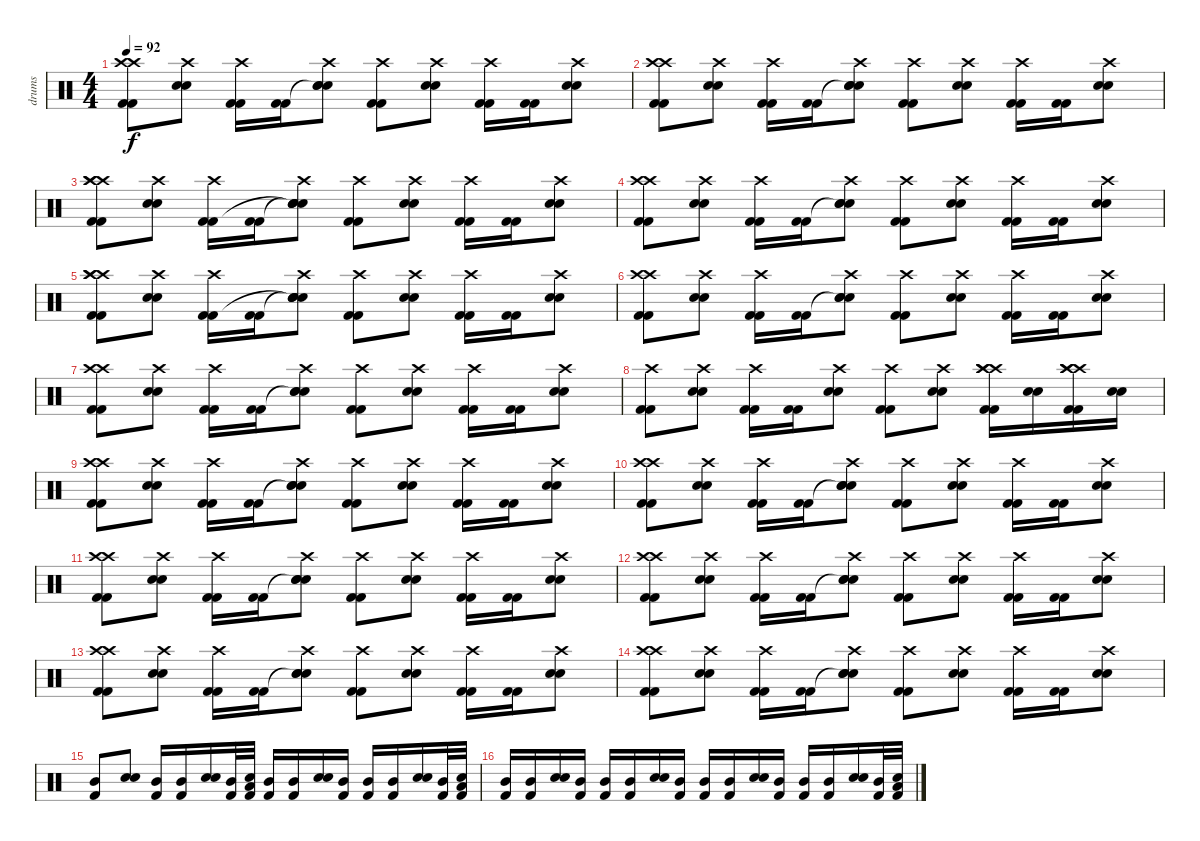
\track ("drums" "drums") {instrument percussion}
\staff {score}
\articulation defaults
\ts (4 4)
\tempo 92
\clef neutral
\ks c
("Crash high (hit)" "Crash high (hit)" "Kick (hit) 2" "Kick (hit) 2").8{dy f} ("Crash high (hit)" "Electric Snare (hit)" "Electric Snare (hit)").8 ("Crash high (hit)" "Kick (hit) 2" "Kick (hit) 2").16 ("Kick (hit) 2" "Kick (hit) 2").16 ("Crash high (hit)" "Snare (hit)"{t} "Electric Snare (hit)" "Electric Snare (hit)").8 ("Crash high (hit)" "Kick (hit) 2" "Kick (hit) 2").8 ("Crash high (hit)" "Electric Snare (hit)" "Electric Snare (hit)").8 ("Crash high (hit)" "Kick (hit) 2" "Kick (hit) 2").16 ("Kick (hit) 2" "Kick (hit) 2").16 ("Crash high (hit)" "Electric Snare (hit)" "Electric Snare (hit)").8 |
("Crash high (hit)" "Crash high (hit)" "Kick (hit) 2" "Kick (hit) 2").8 ("Crash high (hit)" "Electric Snare (hit)" "Electric Snare (hit)").8 ("Crash high (hit)" "Kick (hit) 2" "Kick (hit) 2").16 ("Kick (hit) 2" "Kick (hit) 2").16 ("Crash high (hit)" "Snare (hit)"{t} "Electric Snare (hit)" "Electric Snare (hit)").8 ("Crash high (hit)" "Kick (hit) 2" "Kick (hit) 2").8 ("Crash high (hit)" "Electric Snare (hit)" "Electric Snare (hit)").8 ("Crash high (hit)" "Kick (hit) 2" "Kick (hit) 2").16 ("Kick (hit) 2" "Kick (hit) 2").16 ("Crash high (hit)" "Electric Snare (hit)" "Electric Snare (hit)").8 |
("Crash high (hit)" "Crash high (hit)" "Crash high (hit)" "Kick (hit) 2" "Kick (hit) 2").8{volume 16} ("Crash high (hit)" "Electric Snare (hit)" "Electric Snare (hit)").8{volume 12} ("Crash high (hit)" "Kick (hit) 2" "Kick (hit) 2").16 ("Kick (hit) 2" "Kick (hit) 2").16 ("Crash high (hit)" "Snare (hit)"{t} "Snare (hit)"{t} "Electric Snare (hit)" "Electric Snare (hit)").8 ("Crash high (hit)" "Kick (hit) 2" "Kick (hit) 2").8 ("Crash high (hit)" "Electric Snare (hit)" "Electric Snare (hit)").8 ("Crash high (hit)" "Kick (hit) 2" "Kick (hit) 2").16 ("Kick (hit) 2" "Kick (hit) 2").16 ("Crash high (hit)" "Electric Snare (hit)" "Electric Snare (hit)").8 |
("Crash high (hit)" "Crash high (hit)" "Kick (hit) 2" "Kick (hit) 2").8 ("Crash high (hit)" "Electric Snare (hit)" "Electric Snare (hit)").8 ("Crash high (hit)" "Kick (hit) 2" "Kick (hit) 2").16 ("Kick (hit) 2" "Kick (hit) 2").16 ("Crash high (hit)" "Snare (hit)"{t} "Electric Snare (hit)" "Electric Snare (hit)").8 ("Crash high (hit)" "Kick (hit) 2" "Kick (hit) 2").8 ("Crash high (hit)" "Electric Snare (hit)" "Electric Snare (hit)").8 ("Crash high (hit)" "Kick (hit) 2" "Kick (hit) 2").16 ("Kick (hit) 2" "Kick (hit) 2").16 ("Crash high (hit)" "Electric Snare (hit)" "Electric Snare (hit)").8 |
("Crash high (hit)" "Crash high (hit)" "Crash high (hit)" "Kick (hit) 2" "Kick (hit) 2").8{volume 16} ("Crash high (hit)" "Electric Snare (hit)" "Electric Snare (hit)").8{volume 12} ("Crash high (hit)" "Kick (hit) 2" "Kick (hit) 2").16 ("Kick (hit) 2" "Kick (hit) 2").16 ("Crash high (hit)" "Snare (hit)"{t} "Snare (hit)"{t} "Electric Snare (hit)" "Electric Snare (hit)").8 ("Crash high (hit)" "Kick (hit) 2" "Kick (hit) 2").8 ("Crash high (hit)" "Electric Snare (hit)" "Electric Snare (hit)").8 ("Crash high (hit)" "Kick (hit) 2" "Kick (hit) 2").16 ("Kick (hit) 2" "Kick (hit) 2").16 ("Crash high (hit)" "Electric Snare (hit)" "Electric Snare (hit)").8 |
("Crash high (hit)" "Crash high (hit)" "Kick (hit) 2" "Kick (hit) 2").8 ("Crash high (hit)" "Electric Snare (hit)" "Electric Snare (hit)").8 ("Crash high (hit)" "Kick (hit) 2" "Kick (hit) 2").16 ("Kick (hit) 2" "Kick (hit) 2").16 ("Crash high (hit)" "Snare (hit)"{t} "Electric Snare (hit)" "Electric Snare (hit)").8 ("Crash high (hit)" "Kick (hit) 2" "Kick (hit) 2").8 ("Crash high (hit)" "Electric Snare (hit)" "Electric Snare (hit)").8 ("Crash high (hit)" "Kick (hit) 2" "Kick (hit) 2").16 ("Kick (hit) 2" "Kick (hit) 2").16 ("Crash high (hit)" "Electric Snare (hit)" "Electric Snare (hit)").8 |
("Crash high (hit)" "Crash high (hit)" "Kick (hit) 2" "Kick (hit) 2").8 ("Crash high (hit)" "Electric Snare (hit)" "Electric Snare (hit)").8 ("Crash high (hit)" "Kick (hit) 2" "Kick (hit) 2").16 ("Kick (hit) 2" "Kick (hit) 2").16 ("Crash high (hit)" "Snare (hit)"{t} "Electric Snare (hit)" "Electric Snare (hit)").8 ("Crash high (hit)" "Kick (hit) 2" "Kick (hit) 2").8 ("Crash high (hit)" "Electric Snare (hit)" "Electric Snare (hit)").8 ("Crash high (hit)" "Kick (hit) 2" "Kick (hit) 2").16 ("Kick (hit) 2" "Kick (hit) 2").16 ("Crash high (hit)" "Electric Snare (hit)" "Electric Snare (hit)").8 |
("Crash high (hit)" "Kick (hit) 2" "Kick (hit) 2").8 ("Crash high (hit)" "Electric Snare (hit)" "Electric Snare (hit)").8 ("Crash high (hit)" "Kick (hit) 2" "Kick (hit) 2").16 ("Kick (hit) 2" "Kick (hit) 2").16 ("Crash high (hit)" "Electric Snare (hit)" "Electric Snare (hit)").8 ("Crash high (hit)" "Kick (hit) 2" "Kick (hit) 2").8 ("Crash high (hit)" "Electric Snare (hit)" "Electric Snare (hit)").8 ("Crash high (hit)" "Crash high (hit)" "Crash high (hit)" "Kick (hit) 2" "Kick (hit) 2").16 ("Electric Snare (hit)" "Electric Snare (hit)").16 ("Crash high (hit)" "Crash high (hit)" "Crash high (hit)" "Kick (hit) 2" "Kick (hit) 2").16 ("Electric Snare (hit)" "Electric Snare (hit)").16 |
("Crash high (hit)" "Crash high (hit)" "Kick (hit) 2" "Kick (hit) 2").8 ("Crash high (hit)" "Electric Snare (hit)" "Electric Snare (hit)").8 ("Crash high (hit)" "Kick (hit) 2" "Kick (hit) 2").16 ("Kick (hit) 2" "Kick (hit) 2").16 ("Crash high (hit)" "Snare (hit)"{t} "Electric Snare (hit)" "Electric Snare (hit)").8 ("Crash high (hit)" "Kick (hit) 2" "Kick (hit) 2").8 ("Crash high (hit)" "Electric Snare (hit)" "Electric Snare (hit)").8 ("Crash high (hit)" "Kick (hit) 2" "Kick (hit) 2").16 ("Kick (hit) 2" "Kick (hit) 2").16 ("Crash high (hit)" "Electric Snare (hit)" "Electric Snare (hit)").8 |
("Crash high (hit)" "Crash high (hit)" "Kick (hit) 2" "Kick (hit) 2").8 ("Crash high (hit)" "Electric Snare (hit)" "Electric Snare (hit)").8 ("Crash high (hit)" "Kick (hit) 2" "Kick (hit) 2").16 ("Kick (hit) 2" "Kick (hit) 2").16 ("Crash high (hit)" "Snare (hit)"{t} "Electric Snare (hit)" "Electric Snare (hit)").8 ("Crash high (hit)" "Kick (hit) 2" "Kick (hit) 2").8 ("Crash high (hit)" "Electric Snare (hit)" "Electric Snare (hit)").8 ("Crash high (hit)" "Kick (hit) 2" "Kick (hit) 2").16 ("Kick (hit) 2" "Kick (hit) 2").16 ("Crash high (hit)" "Electric Snare (hit)" "Electric Snare (hit)").8 |
("Crash high (hit)" "Crash high (hit)" "Kick (hit) 2" "Kick (hit) 2").8 ("Crash high (hit)" "Electric Snare (hit)" "Electric Snare (hit)").8 ("Crash high (hit)" "Kick (hit) 2" "Kick (hit) 2").16 ("Kick (hit) 2" "Kick (hit) 2").16 ("Crash high (hit)" "Snare (hit)"{t} "Electric Snare (hit)" "Electric Snare (hit)").8 ("Crash high (hit)" "Kick (hit) 2" "Kick (hit) 2").8 ("Crash high (hit)" "Electric Snare (hit)" "Electric Snare (hit)").8 ("Crash high (hit)" "Kick (hit) 2" "Kick (hit) 2").16 ("Kick (hit) 2" "Kick (hit) 2").16 ("Crash high (hit)" "Electric Snare (hit)" "Electric Snare (hit)").8 |
("Crash high (hit)" "Crash high (hit)" "Kick (hit) 2" "Kick (hit) 2").8 ("Crash high (hit)" "Electric Snare (hit)" "Electric Snare (hit)").8 ("Crash high (hit)" "Kick (hit) 2" "Kick (hit) 2").16 ("Kick (hit) 2" "Kick (hit) 2").16 ("Crash high (hit)" "Snare (hit)"{t} "Electric Snare (hit)" "Electric Snare (hit)").8 ("Crash high (hit)" "Kick (hit) 2" "Kick (hit) 2").8 ("Crash high (hit)" "Electric Snare (hit)" "Electric Snare (hit)").8 ("Crash high (hit)" "Kick (hit) 2" "Kick (hit) 2").16 ("Kick (hit) 2" "Kick (hit) 2").16 ("Crash high (hit)" "Electric Snare (hit)" "Electric Snare (hit)").8 |
("Crash high (hit)" "Crash high (hit)" "Kick (hit) 2" "Kick (hit) 2").8 ("Crash high (hit)" "Electric Snare (hit)" "Electric Snare (hit)").8 ("Crash high (hit)" "Kick (hit) 2" "Kick (hit) 2").16 ("Kick (hit) 2" "Kick (hit) 2").16 ("Crash high (hit)" "Snare (hit)"{t} "Electric Snare (hit)" "Electric Snare (hit)").8 ("Crash high (hit)" "Kick (hit) 2" "Kick (hit) 2").8 ("Crash high (hit)" "Electric Snare (hit)" "Electric Snare (hit)").8 ("Crash high (hit)" "Kick (hit) 2" "Kick (hit) 2").16 ("Kick (hit) 2" "Kick (hit) 2").16 ("Crash high (hit)" "Electric Snare (hit)" "Electric Snare (hit)").8 |
("Crash high (hit)" "Crash high (hit)" "Kick (hit) 2" "Kick (hit) 2").8 ("Crash high (hit)" "Electric Snare (hit)" "Electric Snare (hit)").8 ("Crash high (hit)" "Kick (hit) 2" "Kick (hit) 2").16 ("Kick (hit) 2" "Kick (hit) 2").16 ("Crash high (hit)" "Snare (hit)"{t} "Electric Snare (hit)" "Electric Snare (hit)").8 ("Crash high (hit)" "Kick (hit) 2" "Kick (hit) 2").8 ("Crash high (hit)" "Electric Snare (hit)" "Electric Snare (hit)").8 ("Crash high (hit)" "Kick (hit) 2" "Kick (hit) 2").16 ("Kick (hit) 2" "Kick (hit) 2").16 ("Crash high (hit)" "Electric Snare (hit)" "Electric Snare (hit)").8 |
("Mid Tom (hit)" "Kick (hit) 2").8 ("Electric Snare (hit)" "Electric Snare (hit)").8 ("Mid Tom (hit)" "Kick (hit) 2").16 ("Mid Tom (hit)" "Kick (hit) 2").16 ("Electric Snare (hit)" "Electric Snare (hit)").16 ("Mid Tom (hit)" "Kick (hit) 2").32 ("Low Tom (hit)" "Electric Snare (hit)" "Kick (hit) 2").32 ("Mid Tom (hit)" "Kick (hit) 2").16 ("Mid Tom (hit)" "Kick (hit) 2").16 ("Electric Snare (hit)" "Electric Snare (hit)").16 ("Mid Tom (hit)" "Kick (hit) 2").16 ("Mid Tom (hit)" "Kick (hit) 2").16 ("Mid Tom (hit)" "Kick (hit) 2").16 ("Electric Snare (hit)" "Electric Snare (hit)").16 ("Mid Tom (hit)" "Kick (hit) 2").32 ("Low Tom (hit)" "Electric Snare (hit)" "Kick (hit) 2").32 |
("Mid Tom (hit)" "Kick (hit) 2").16 ("Mid Tom (hit)" "Kick (hit) 2").16 ("Electric Snare (hit)" "Electric Snare (hit)").16 ("Mid Tom (hit)" "Kick (hit) 2").16 ("Mid Tom (hit)" "Kick (hit) 2").16 ("Mid Tom (hit)" "Kick (hit) 2").16 ("Electric Snare (hit)" "Electric Snare (hit)").16 ("Mid Tom (hit)" "Kick (hit) 2").16 ("Mid Tom (hit)" "Kick (hit) 2").16 ("Mid Tom (hit)" "Kick (hit) 2").16 ("Electric Snare (hit)" "Electric Snare (hit)").16 ("Mid Tom (hit)" "Kick (hit) 2").16 ("Mid Tom (hit)" "Kick (hit) 2").16 ("Mid Tom (hit)" "Kick (hit) 2").16 ("Electric Snare (hit)" "Electric Snare (hit)").16 ("Mid Tom (hit)" "Kick (hit) 2").32 ("Low Tom (hit)" "Electric Snare (hit)" "Kick (hit) 2").32
